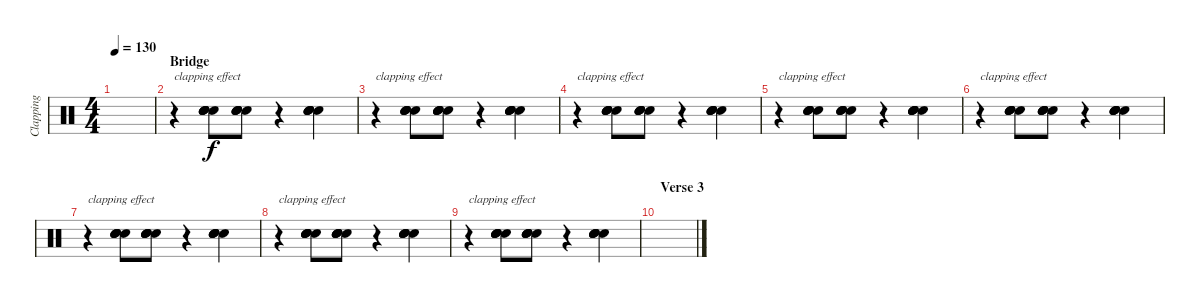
\track ("Clapping" "Clapping") {instrument percussion}
\staff {score}
\articulation defaults
\ts (4 4)
\tempo 130
\clef neutral
\ks c
|
\section ("" "Bridge")
r.4{txt "clapping effect"} ("Electric Snare (hit)" "Electric Snare (hit)" "Electric Snare (hit)" "Electric Snare (hit)" "Electric Snare (hit)").8 ("Electric Snare (hit)" "Electric Snare (hit)" "Electric Snare (hit)" "Electric Snare (hit)" "Electric Snare (hit)").8 r.4 ("Electric Snare (hit)" "Electric Snare (hit)" "Electric Snare (hit)" "Electric Snare (hit)" "Electric Snare (hit)").4 |
r.4{txt "clapping effect"} ("Electric Snare (hit)" "Electric Snare (hit)" "Electric Snare (hit)" "Electric Snare (hit)" "Electric Snare (hit)").8 ("Electric Snare (hit)" "Electric Snare (hit)" "Electric Snare (hit)" "Electric Snare (hit)" "Electric Snare (hit)").8 r.4 ("Electric Snare (hit)" "Electric Snare (hit)" "Electric Snare (hit)" "Electric Snare (hit)" "Electric Snare (hit)").4 |
r.4{txt "clapping effect"} ("Electric Snare (hit)" "Electric Snare (hit)" "Electric Snare (hit)" "Electric Snare (hit)" "Electric Snare (hit)").8 ("Electric Snare (hit)" "Electric Snare (hit)" "Electric Snare (hit)" "Electric Snare (hit)" "Electric Snare (hit)").8 r.4 ("Electric Snare (hit)" "Electric Snare (hit)" "Electric Snare (hit)" "Electric Snare (hit)" "Electric Snare (hit)").4 |
r.4{txt "clapping effect"} ("Electric Snare (hit)" "Electric Snare (hit)" "Electric Snare (hit)" "Electric Snare (hit)" "Electric Snare (hit)").8 ("Electric Snare (hit)" "Electric Snare (hit)" "Electric Snare (hit)" "Electric Snare (hit)" "Electric Snare (hit)").8 r.4 ("Electric Snare (hit)" "Electric Snare (hit)" "Electric Snare (hit)" "Electric Snare (hit)" "Electric Snare (hit)").4 |
r.4{txt "clapping effect"} ("Electric Snare (hit)" "Electric Snare (hit)" "Electric Snare (hit)" "Electric Snare (hit)" "Electric Snare (hit)").8 ("Electric Snare (hit)" "Electric Snare (hit)" "Electric Snare (hit)" "Electric Snare (hit)" "Electric Snare (hit)").8 r.4 ("Electric Snare (hit)" "Electric Snare (hit)" "Electric Snare (hit)" "Electric Snare (hit)" "Electric Snare (hit)").4 |
r.4{txt "clapping effect"} ("Electric Snare (hit)" "Electric Snare (hit)" "Electric Snare (hit)" "Electric Snare (hit)" "Electric Snare (hit)").8 ("Electric Snare (hit)" "Electric Snare (hit)" "Electric Snare (hit)" "Electric Snare (hit)" "Electric Snare (hit)").8 r.4 ("Electric Snare (hit)" "Electric Snare (hit)" "Electric Snare (hit)" "Electric Snare (hit)" "Electric Snare (hit)").4 |
r.4{txt "clapping effect"} ("Electric Snare (hit)" "Electric Snare (hit)" "Electric Snare (hit)" "Electric Snare (hit)" "Electric Snare (hit)").8 ("Electric Snare (hit)" "Electric Snare (hit)" "Electric Snare (hit)" "Electric Snare (hit)" "Electric Snare (hit)").8 r.4 ("Electric Snare (hit)" "Electric Snare (hit)" "Electric Snare (hit)" "Electric Snare (hit)" "Electric Snare (hit)").4 |
r.4{txt "clapping effect"} ("Electric Snare (hit)" "Electric Snare (hit)" "Electric Snare (hit)" "Electric Snare (hit)" "Electric Snare (hit)").8 ("Electric Snare (hit)" "Electric Snare (hit)" "Electric Snare (hit)" "Electric Snare (hit)" "Electric Snare (hit)").8 r.4 ("Electric Snare (hit)" "Electric Snare (hit)" "Electric Snare (hit)" "Electric Snare (hit)" "Electric Snare (hit)").4 |
\section ("" "Verse 3")
